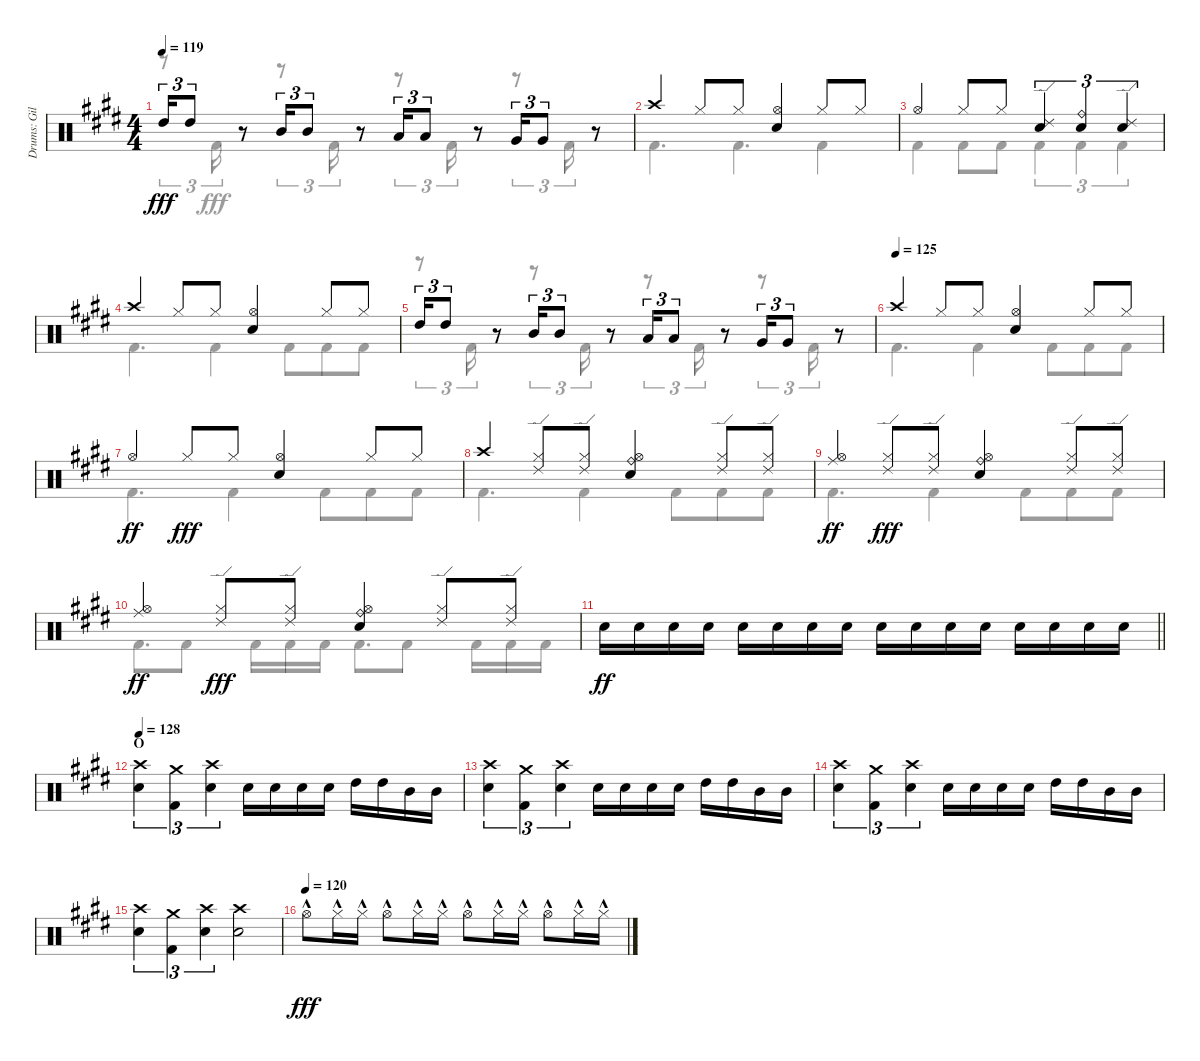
\track ("Drums: Gil" "Drums: Gil") {instrument percussion}
\staff {score}
\articulation defaults
\voice
\ts (4 4)
\tempo 119
\clef neutral
\ks e "High Tom (hit)".16{tu (3 2) dy fff} "High Tom (hit)".8{tu (3 2)}
r.8 "Mid Tom (hit)".16{tu (3 2)} "Mid Tom (hit)".8{tu (3 2)} r.8 "Low Tom (hit)".16{tu (3 2)} "Low Tom (hit)".8{tu (3 2)} r.8 "Very Low Tom (hit)".16{tu (3 2)} "Very Low Tom (hit)".8{tu (3 2)} r.8 |
"Crash high (hit)".4 "Hi-Hat (closed)".8 "Hi-Hat (closed)".8 ("Hi-Hat (open)" "Snare (hit) 2").4 "Hi-Hat (closed)".8 "Hi-Hat (closed)".8 |
"Hi-Hat (open)".4 "Hi-Hat (closed)".8 "Hi-Hat (closed)".8 ("Ride (edge) 2" "Snare (hit) 2").4{tu (3 2)} ("Ride (bell)" "Snare (hit) 2").4{tu (3 2)} ("Ride (edge) 2" "Snare (hit) 2").4{tu (3 2)} |
"Crash high (hit)".4 "Hi-Hat (closed)".8 "Hi-Hat (closed)".8 ("Hi-Hat (open)" "Snare (hit) 2").4 "Hi-Hat (closed)".8 "Hi-Hat (closed)".8 |
"High Tom (hit)".16{tu (3 2)} "High Tom (hit)".8{tu (3 2)} r.8 "Mid Tom (hit)".16{tu (3 2)} "Mid Tom (hit)".8{tu (3 2)} r.8 "Low Tom (hit)".16{tu (3 2)} "Low Tom (hit)".8{tu (3 2)} r.8 "Very Low Tom (hit)".16{tu (3 2)} "Very Low Tom (hit)".8{tu (3 2)} r.8 |
\tempo (125)
"Crash high (hit)".4 "Hi-Hat (closed)".8 "Hi-Hat (closed)".8 ("Hi-Hat (open)" "Snare (hit) 2").4 "Hi-Hat (closed)".8 "Hi-Hat (closed)".8 |
"Hi-Hat (open)".4{dy ff} "Hi-Hat (closed)".8{dy fff} "Hi-Hat (closed)".8 ("Hi-Hat (open)" "Snare (hit) 2").4 "Hi-Hat (closed)".8 "Hi-Hat (closed)".8 |
"Crash high (hit)".4 ("Ride (edge) 2" "Hi-Hat (closed)").8 ("Ride (edge) 2" "Hi-Hat (closed)").8 ("Ride (bell)" "Hi-Hat (open)" "Snare (hit) 2").4 ("Ride (edge) 2" "Hi-Hat (closed)").8 ("Ride (edge) 2" "Hi-Hat (closed)").8 |
("Ride (middle)" "Hi-Hat (open)").4{dy ff} ("Ride (edge) 2" "Hi-Hat (closed)").8{dy fff} ("Ride (edge) 2" "Hi-Hat (closed)").8 ("Ride (bell)" "Hi-Hat (open)" "Snare (hit) 2").4 ("Ride (edge) 2" "Hi-Hat (closed)").8 ("Ride (edge) 2" "Hi-Hat (closed)").8 |
("Ride (middle)" "Hi-Hat (open)").4{dy ff} ("Ride (edge) 2" "Hi-Hat (closed)").8{dy fff} ("Ride (edge) 2" "Hi-Hat (closed)").8 ("Ride (bell)" "Hi-Hat (open)" "Snare (hit) 2").4 ("Ride (edge) 2" "Hi-Hat (closed)").8 ("Ride (edge) 2" "Hi-Hat (closed)").8 |
\barLineRight lightlight "Snare (hit) 2".16{dy ff} "Snare (hit) 2".16 "Snare (hit) 2".16 "Snare (hit) 2".16 "Snare (hit) 2".16 "Snare (hit) 2".16 "Snare (hit) 2".16 "Snare (hit) 2".16 "Snare (hit) 2".16 "Snare (hit) 2".16 "Snare (hit) 2".16 "Snare (hit) 2".16 "Snare (hit) 2".16 "Snare (hit) 2".16 "Snare (hit) 2".16 "Snare (hit) 2".16
|
\section ("" "O")
\tempo 128
("Crash high (hit)" "Snare (hit) 2").4{tu (3 2)} ("Crash medium (hit)" "Kick (hit) 2").4{tu (3 2)} ("Crash high (hit)" "Snare (hit) 2").4{tu (3 2)} "Snare (hit) 2".16 "Snare (hit) 2".16 "Snare (hit) 2".16 "Snare (hit) 2".16 "High Tom (hit)".16 "High Tom (hit)".16 "Mid Tom (hit)".16 "Mid Tom (hit)".16 |
("Crash high (hit)" "Snare (hit) 2").4{tu (3 2)} ("Crash medium (hit)" "Kick (hit) 2").4{tu (3 2)} ("Crash high (hit)" "Snare (hit) 2").4{tu (3 2)} "Snare (hit) 2".16 "Snare (hit) 2".16 "Snare (hit) 2".16 "Snare (hit) 2".16 "High Tom (hit)".16 "High Tom (hit)".16 "Mid Tom (hit)".16 "Mid Tom (hit)".16 |
("Crash high (hit)" "Snare (hit) 2").4{tu (3 2)} ("Crash medium (hit)" "Kick (hit) 2").4{tu (3 2)} ("Crash high (hit)" "Snare (hit) 2").4{tu (3 2)} "Snare (hit) 2".16 "Snare (hit) 2".16 "Snare (hit) 2".16 "Snare (hit) 2".16 "High Tom (hit)".16 "High Tom (hit)".16 "Mid Tom (hit)".16 "Mid Tom (hit)".16 |
("Crash high (hit)" "Snare (hit) 2").4{tu (3 2)} ("Crash medium (hit)" "Kick (hit) 2").4{tu (3 2)} ("Crash high (hit)" "Snare (hit) 2").4{tu (3 2)} ("Crash high (hit)" "Snare (hit) 2").2 |
\tempo (120)
"Hi-Hat (open)"{hac}.8{dy fff} "Hi-Hat (closed)"{hac}.16 "Hi-Hat (closed)"{hac}.16 "Hi-Hat (open)"{hac}.8 "Hi-Hat (closed)"{hac}.16 "Hi-Hat (closed)"{hac}.16 "Hi-Hat (open)"{hac}.8 "Hi-Hat (closed)"{hac}.16 "Hi-Hat (closed)"{hac}.16 "Hi-Hat (open)"{hac}.8 "Hi-Hat (closed)"{hac}.16 "Hi-Hat (closed)"{hac}.16
\voice
\clef neutral
\ottava regular
\simile none
\ks e
r.8{tu (3 2) dy fff} "Kick (hit) 2".16{tu (3 2)} r.8 r.8{tu (3 2)} "Kick (hit) 2".16{tu (3 2)} r.8 r.8{tu (3 2)} "Kick (hit) 2".16{tu (3 2)} r.8 r.8{tu (3 2)} "Kick (hit) 2".16{tu (3 2)} r.8 |
"Kick (hit) 2".4{d} "Kick (hit) 2".4{d} "Kick (hit) 2".4 |
"Kick (hit) 2".4 "Kick (hit) 2".8 "Kick (hit) 2".8 "Kick (hit) 2".4{tu (3 2)} "Kick (hit) 2".4{tu (3 2)} "Kick (hit) 2".4{tu (3 2)} |
"Kick (hit) 2".4{d} "Kick (hit) 2".4 "Kick (hit) 2".8{beam merge} "Kick (hit) 2".8 "Kick (hit) 2".8 |
r.8{tu (3 2)} "Kick (hit) 2".16{tu (3 2)} r.8 r.8{tu (3 2)} "Kick (hit) 2".16{tu (3 2)} r.8 r.8{tu (3 2)} "Kick (hit) 2".16{tu (3 2)} r.8 r.8{tu (3 2)} "Kick (hit) 2".16{tu (3 2)} r.8 |
"Kick (hit) 2".4{d} "Kick (hit) 2".4 "Kick (hit) 2".8{beam merge} "Kick (hit) 2".8 "Kick (hit) 2".8 |
"Kick (hit) 2".4{d} "Kick (hit) 2".4 "Kick (hit) 2".8{beam merge} "Kick (hit) 2".8 "Kick (hit) 2".8 |
"Kick (hit) 2".4{d} "Kick (hit) 2".4 "Kick (hit) 2".8{beam merge} "Kick (hit) 2".8 "Kick (hit) 2".8 |
"Kick (hit) 2".4{d} "Kick (hit) 2".4 "Kick (hit) 2".8{beam merge} "Kick (hit) 2".8 "Kick (hit) 2".8 |
"Kick (hit) 2".8{d} "Kick (hit) 2".8 "Kick (hit) 2".16{beam merge} "Kick (hit) 2".16 "Kick (hit) 2".16 "Kick (hit) 2".8{d} "Kick (hit) 2".8 "Kick (hit) 2".16{beam merge} "Kick (hit) 2".16 "Kick (hit) 2".16 |
\barLineRight lightlight
|
|
|
|
|
